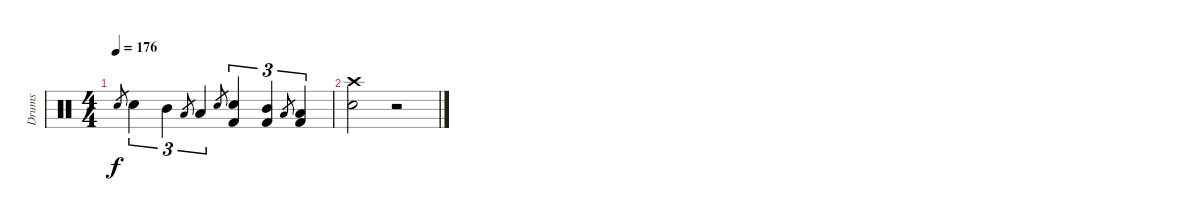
\track ("Drums" "Drums") {instrument percussion}
\staff {score}
\articulation defaults
\ts (4 4)
\tempo 176
\clef neutral
\ks c "Electric Snare (hit)".8{gr dy f} "Electric Snare (hit)".4{tu (3 2)} "Mid Tom (hit)".4{tu (3 2)} "Low Tom (hit)".8{gr} "Low Tom (hit)".4{tu (3 2)} "Electric Snare (hit)".8{gr}
("Electric Snare (hit)" "Kick (hit) 2").4{tu (3 2)} ("Mid Tom (hit)" "Kick (hit) 2").4{tu (3 2)} "Low Tom (hit)".8{gr} ("Low Tom (hit)" "Kick (hit) 2").4{tu (3 2)} |
("Crash high (hit)" "Electric Snare (hit)").2 r.2
